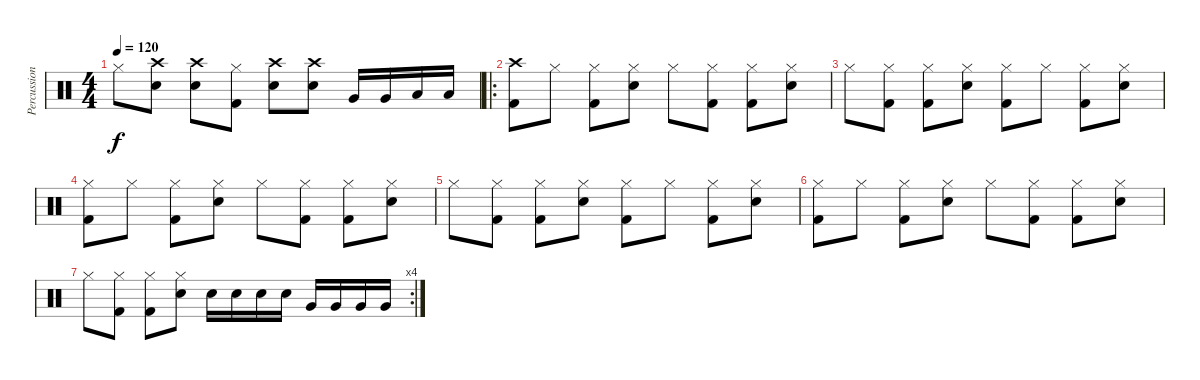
\track ("Percussion" "Percussion") {instrument percussion}
\staff {score}
\articulation defaults
\ts (4 4)
\tempo 120
\clef neutral
\ks c "Hi-Hat (closed)".8{dy f}
("Crash high (hit)" "Snare (hit) 2").8 ("Crash high (hit)" "Snare (hit) 2").8 ("Hi-Hat (closed)" "Kick (hit) 2").8 ("Crash high (hit)" "Snare (hit) 2").8 ("Crash high (hit)" "Snare (hit) 2").8 "Very Low Tom (hit)".16 "Very Low Tom (hit)".16 "Low Floor Tom (hit)".16 "Low Floor Tom (hit)".16 |
\ro
("Crash high (hit)" "Kick (hit) 2").8 "Hi-Hat (closed)".8 ("Hi-Hat (closed)" "Kick (hit) 2").8 ("Hi-Hat (closed)" "Snare (hit) 2").8 "Hi-Hat (closed)".8 ("Hi-Hat (closed)" "Kick (hit) 2").8 ("Hi-Hat (closed)" "Kick (hit) 2").8 ("Hi-Hat (closed)" "Snare (hit) 2").8 |
"Hi-Hat (closed)".8 ("Hi-Hat (closed)" "Kick (hit) 2").8 ("Hi-Hat (closed)" "Kick (hit) 2").8 ("Hi-Hat (closed)" "Snare (hit) 2").8 ("Hi-Hat (closed)" "Kick (hit) 2").8 "Hi-Hat (closed)".8 ("Hi-Hat (closed)" "Kick (hit) 2").8 ("Hi-Hat (closed)" "Snare (hit) 2").8 |
("Hi-Hat (closed)" "Kick (hit) 2").8 "Hi-Hat (closed)".8 ("Hi-Hat (closed)" "Kick (hit) 2").8 ("Hi-Hat (closed)" "Snare (hit) 2").8 "Hi-Hat (closed)".8 ("Hi-Hat (closed)" "Kick (hit) 2").8 ("Hi-Hat (closed)" "Kick (hit) 2").8 ("Hi-Hat (closed)" "Snare (hit) 2").8 |
"Hi-Hat (closed)".8 ("Hi-Hat (closed)" "Kick (hit) 2").8 ("Hi-Hat (closed)" "Kick (hit) 2").8 ("Hi-Hat (closed)" "Snare (hit) 2").8 ("Hi-Hat (closed)" "Kick (hit) 2").8 "Hi-Hat (closed)".8 ("Hi-Hat (closed)" "Kick (hit) 2").8 ("Hi-Hat (closed)" "Snare (hit) 2").8 |
("Hi-Hat (closed)" "Kick (hit) 2").8 "Hi-Hat (closed)".8 ("Hi-Hat (closed)" "Kick (hit) 2").8 ("Hi-Hat (closed)" "Snare (hit) 2").8 "Hi-Hat (closed)".8 ("Hi-Hat (closed)" "Kick (hit) 2").8 ("Hi-Hat (closed)" "Kick (hit) 2").8 ("Hi-Hat (closed)" "Snare (hit) 2").8 |
\rc 4 "Hi-Hat (closed)".8
("Hi-Hat (closed)" "Kick (hit) 2").8 ("Hi-Hat (closed)" "Kick (hit) 2").8 ("Hi-Hat (closed)" "Snare (hit) 2").8 "Snare (hit) 2".16 "Snare (hit) 2".16 "Snare (hit) 2".16 "Snare (hit) 2".16 "Very Low Tom (hit)".16 "Very Low Tom (hit)".16 "Very Low Tom (hit)".16 "Very Low Tom (hit)".16
